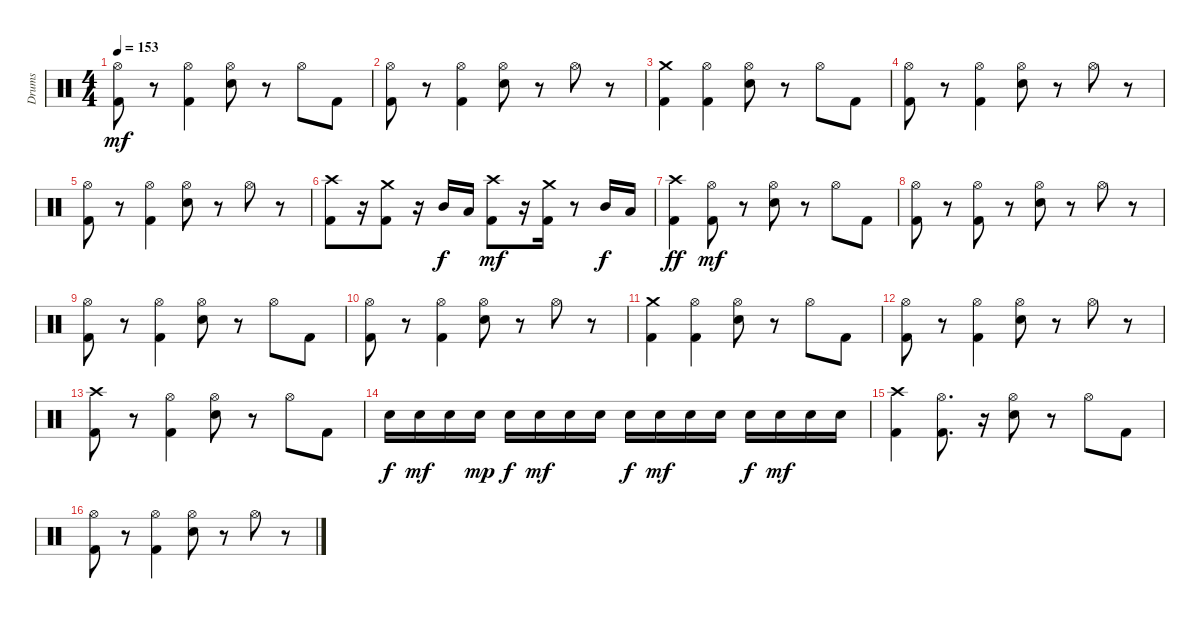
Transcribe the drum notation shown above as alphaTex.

\track ("Drums" "Drums") {instrument percussion}
\staff {score}
\articulation defaults
\ts (4 4)
\tempo 153
\clef neutral
\ks c
("Kick (hit) 2" "Hi-Hat (open)").8{dy mf} r.8 ("Kick (hit) 2" "Hi-Hat (open)").4 ("Electric Snare (hit)" "Hi-Hat (open)").8 r.8 "Hi-Hat (open)".8 "Kick (hit) 2".8 |
("Kick (hit) 2" "Hi-Hat (open)").8 r.8 ("Kick (hit) 2" "Hi-Hat (open)").4 ("Electric Snare (hit)" "Hi-Hat (open)").8 r.8 "Hi-Hat (open)".8 r.8 |
("Kick (hit) 2" "Crash medium (hit)").4 ("Kick (hit) 2" "Hi-Hat (open)").4 ("Electric Snare (hit)" "Hi-Hat (open)").8 r.8 "Hi-Hat (open)".8 "Kick (hit) 2".8 |
("Kick (hit) 2" "Hi-Hat (open)").8 r.8 ("Kick (hit) 2" "Hi-Hat (open)").4 ("Electric Snare (hit)" "Hi-Hat (open)").8 r.8 "Hi-Hat (open)".8 r.8 |
("Kick (hit) 2" "Hi-Hat (open)").8 r.8 ("Kick (hit) 2" "Hi-Hat (open)").4 ("Electric Snare (hit)" "Hi-Hat (open)").8 r.8 "Hi-Hat (open)".8 r.8 |
("Kick (hit) 2" "Crash high (hit)").8 r.16 ("Kick (hit) 2" "Crash medium (hit)").8 r.16 "Mid Tom (hit)".16{dy f} "Low Tom (hit)".16 ("Kick (hit) 2" "Crash high (hit)").8{dy mf} r.16 ("Kick (hit) 2" "Crash medium (hit)").16 r.8 "Mid Tom (hit)".16{dy f} "Low Tom (hit)".16 |
("Crash high (hit)" "Kick (hit) 2").4{dy ff} ("Kick (hit) 2" "Hi-Hat (open)").8{dy mf} r.8 ("Electric Snare (hit)" "Hi-Hat (open)").8 r.8 "Hi-Hat (open)".8 "Kick (hit) 2".8 |
("Kick (hit) 2" "Hi-Hat (open)").8 r.8 ("Kick (hit) 2" "Hi-Hat (open)").8 r.8 ("Electric Snare (hit)" "Hi-Hat (open)").8 r.8 "Hi-Hat (open)".8 r.8 |
("Kick (hit) 2" "Hi-Hat (open)").8 r.8 ("Kick (hit) 2" "Hi-Hat (open)").4 ("Electric Snare (hit)" "Hi-Hat (open)").8 r.8 "Hi-Hat (open)".8 "Kick (hit) 2".8 |
("Kick (hit) 2" "Hi-Hat (open)").8 r.8 ("Kick (hit) 2" "Hi-Hat (open)").4 ("Electric Snare (hit)" "Hi-Hat (open)").8 r.8 "Hi-Hat (open)".8 r.8 |
("Kick (hit) 2" "Crash medium (hit)").4 ("Kick (hit) 2" "Hi-Hat (open)").4 ("Electric Snare (hit)" "Hi-Hat (open)").8 r.8 "Hi-Hat (open)".8 "Kick (hit) 2".8 |
("Kick (hit) 2" "Hi-Hat (open)").8 r.8 ("Kick (hit) 2" "Hi-Hat (open)").4 ("Electric Snare (hit)" "Hi-Hat (open)").8 r.8 "Hi-Hat (open)".8 r.8 |
("Kick (hit) 2" "Crash high (hit)").8 r.8 ("Kick (hit) 2" "Hi-Hat (open)").4 ("Electric Snare (hit)" "Hi-Hat (open)").8 r.8 "Hi-Hat (open)".8 "Kick (hit) 2".8 |
"Electric Snare (hit)".16{dy f} "Electric Snare (hit)".16{dy mf} "Electric Snare (hit)".16 "Electric Snare (hit)".16{dy mp} "Electric Snare (hit)".16{dy f} "Electric Snare (hit)".16{dy mf} "Electric Snare (hit)".16 "Electric Snare (hit)".16 "Electric Snare (hit)".16{dy f} "Electric Snare (hit)".16{dy mf} "Electric Snare (hit)".16 "Electric Snare (hit)".16 "Electric Snare (hit)".16{dy f} "Electric Snare (hit)".16{dy mf} "Electric Snare (hit)".16 "Electric Snare (hit)".16 |
("Kick (hit) 2" "Crash high (hit)").4 ("Kick (hit) 2" "Hi-Hat (open)").8{d} r.16 ("Electric Snare (hit)" "Hi-Hat (open)").8 r.8 "Hi-Hat (open)".8 "Kick (hit) 2".8 |
("Kick (hit) 2" "Hi-Hat (open)").8 r.8 ("Kick (hit) 2" "Hi-Hat (open)").4 ("Electric Snare (hit)" "Hi-Hat (open)").8 r.8 "Hi-Hat (open)".8 r.8
